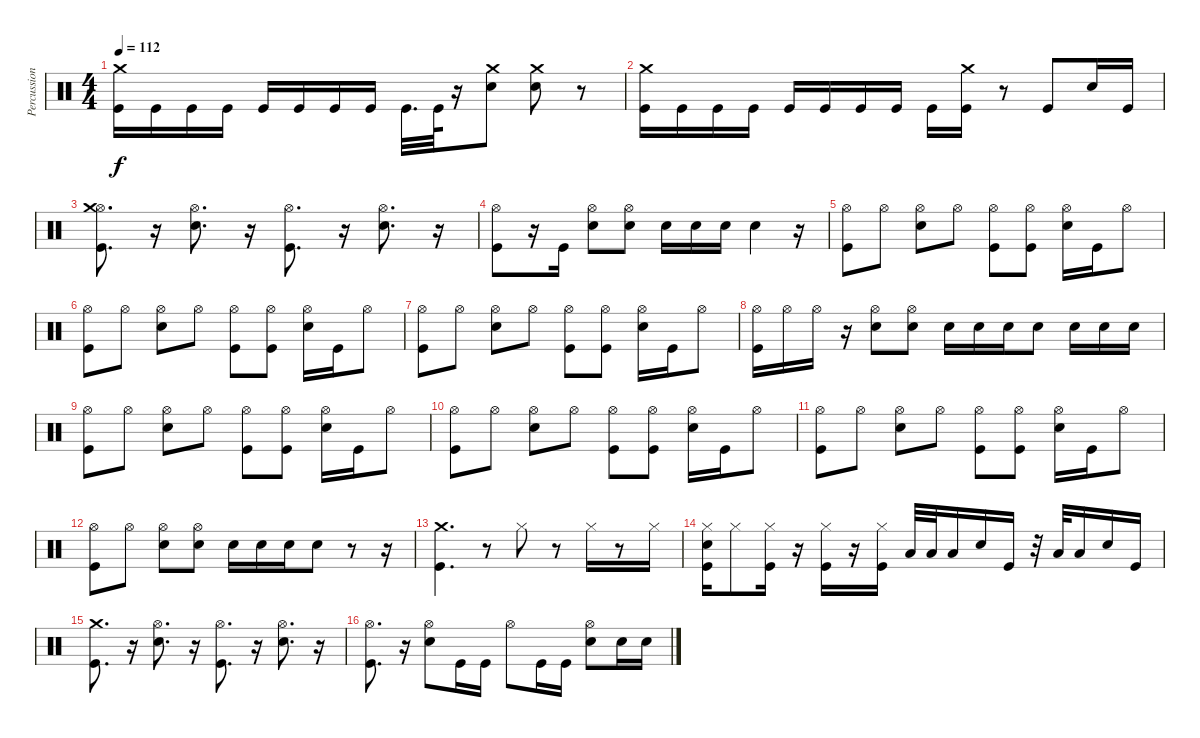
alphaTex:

\track ("Percussion" "Percussion") {instrument percussion}
\staff {score}
\articulation defaults
\ts (4 4)
\tempo 112
\clef neutral
\ks c
("Kick (hit)" "Crash medium (hit)").16{dy f} "Kick (hit)".16 "Kick (hit)".16 "Kick (hit)".16 "Kick (hit)".16 "Kick (hit)".16 "Kick (hit)".16 "Kick (hit)".16 "Kick (hit)".32{d} "Kick (hit)".64 r.16 ("Crash medium (hit)" "Electric Snare (hit)").8 ("Crash medium (hit)" "Electric Snare (hit)").8 r.8 |
("Kick (hit)" "Crash medium (hit)").16 "Kick (hit)".16 "Kick (hit)".16 "Kick (hit)".16 "Kick (hit)".16 "Kick (hit)".16 "Kick (hit)".16 "Kick (hit)".16 "Kick (hit)".16 ("Kick (hit)" "Crash medium (hit)").16 r.8 "Kick (hit)".8 "Electric Snare (hit)".16 "Kick (hit)".16 |
("Hi-Hat (open)" "Kick (hit)" "Crash medium (hit)").8{d} r.16 ("Hi-Hat (open)" "Electric Snare (hit)").8{d} r.16 ("Hi-Hat (open)" "Kick (hit)").8{d} r.16 ("Hi-Hat (open)" "Electric Snare (hit)").8{d} r.16 |
("Hi-Hat (open)" "Kick (hit)").8 r.16 "Kick (hit)".16 ("Hi-Hat (open)" "Electric Snare (hit)").8 ("Hi-Hat (open)" "Electric Snare (hit)").8 "Electric Snare (hit)".16 "Electric Snare (hit)".16 "Electric Snare (hit)".16 "Electric Snare (hit)".4 r.16 |
("Hi-Hat (open)" "Kick (hit)").8 "Hi-Hat (open)".8 ("Hi-Hat (open)" "Electric Snare (hit)").8 "Hi-Hat (open)".8 ("Hi-Hat (open)" "Kick (hit)").8 ("Hi-Hat (open)" "Kick (hit)").8 ("Hi-Hat (open)" "Electric Snare (hit)").16 "Kick (hit)".16 "Hi-Hat (open)".8 |
("Hi-Hat (open)" "Kick (hit)").8 "Hi-Hat (open)".8 ("Hi-Hat (open)" "Electric Snare (hit)").8 "Hi-Hat (open)".8 ("Hi-Hat (open)" "Kick (hit)").8 ("Hi-Hat (open)" "Kick (hit)").8 ("Hi-Hat (open)" "Electric Snare (hit)").16 "Kick (hit)".16 "Hi-Hat (open)".8 |
("Hi-Hat (open)" "Kick (hit)").8 "Hi-Hat (open)".8 ("Hi-Hat (open)" "Electric Snare (hit)").8 "Hi-Hat (open)".8 ("Hi-Hat (open)" "Kick (hit)").8 ("Hi-Hat (open)" "Kick (hit)").8 ("Hi-Hat (open)" "Electric Snare (hit)").16 "Kick (hit)".16 "Hi-Hat (open)".8 |
("Hi-Hat (open)" "Kick (hit)").16 "Hi-Hat (open)".16 "Hi-Hat (open)".16 r.16 ("Hi-Hat (open)" "Electric Snare (hit)").8 ("Hi-Hat (open)" "Electric Snare (hit)").8 "Electric Snare (hit)".16 "Electric Snare (hit)".16 "Electric Snare (hit)".16 "Electric Snare (hit)".8 "Electric Snare (hit)".16 "Electric Snare (hit)".16 "Electric Snare (hit)".16 |
("Hi-Hat (open)" "Kick (hit)").8 "Hi-Hat (open)".8 ("Hi-Hat (open)" "Electric Snare (hit)").8 "Hi-Hat (open)".8 ("Hi-Hat (open)" "Kick (hit)").8 ("Hi-Hat (open)" "Kick (hit)").8 ("Hi-Hat (open)" "Electric Snare (hit)").16 "Kick (hit)".16 "Hi-Hat (open)".8 |
("Hi-Hat (open)" "Kick (hit)").8 "Hi-Hat (open)".8 ("Hi-Hat (open)" "Electric Snare (hit)").8 "Hi-Hat (open)".8 ("Hi-Hat (open)" "Kick (hit)").8 ("Hi-Hat (open)" "Kick (hit)").8 ("Hi-Hat (open)" "Electric Snare (hit)").16 "Kick (hit)".16 "Hi-Hat (open)".8 |
("Hi-Hat (open)" "Kick (hit)").8 "Hi-Hat (open)".8 ("Hi-Hat (open)" "Electric Snare (hit)").8 "Hi-Hat (open)".8 ("Hi-Hat (open)" "Kick (hit)").8 ("Hi-Hat (open)" "Kick (hit)").8 ("Hi-Hat (open)" "Electric Snare (hit)").16 "Kick (hit)".16 "Hi-Hat (open)".8 |
("Hi-Hat (open)" "Kick (hit)").8 "Hi-Hat (open)".8 ("Hi-Hat (open)" "Electric Snare (hit)").8 ("Hi-Hat (open)" "Electric Snare (hit)").8 "Electric Snare (hit)".16 "Electric Snare (hit)".16 "Electric Snare (hit)".16 "Electric Snare (hit)".8 r.8 r.16 |
("Kick (hit)" "Crash medium (hit)").4{d} r.8 "Hi-Hat (closed)".8 r.8 "Hi-Hat (closed)".16 r.8 "Hi-Hat (closed)".16 |
("Electric Snare (hit)" "Kick (hit)" "Hi-Hat (closed)").16 "Hi-Hat (closed)".8 ("Kick (hit)" "Hi-Hat (closed)").16 r.16 ("Kick (hit)" "Hi-Hat (closed)").16 r.16 ("Kick (hit)" "Hi-Hat (closed)").16 "Low Tom (hit)".32 "Low Tom (hit)".32 "Low Tom (hit)".16 "Electric Snare (hit)".16 "Kick (hit)".16 r.32 "Low Tom (hit)".32 "Low Tom (hit)".16 "Electric Snare (hit)".16 "Kick (hit)".16 |
("Kick (hit)" "Crash medium (hit)").8{d} r.16 ("Hi-Hat (open)" "Electric Snare (hit)").8{d} r.16 ("Hi-Hat (open)" "Kick (hit)").8{d} r.16 ("Hi-Hat (open)" "Electric Snare (hit)").8{d} r.16 |
("Hi-Hat (open)" "Kick (hit)").8{d} r.16 ("Hi-Hat (open)" "Electric Snare (hit)").8 "Kick (hit)".16 "Kick (hit)".16 "Hi-Hat (open)".8 "Kick (hit)".16 "Kick (hit)".16 ("Hi-Hat (open)" "Electric Snare (hit)").8 "Electric Snare (hit)".16 "Electric Snare (hit)".16
